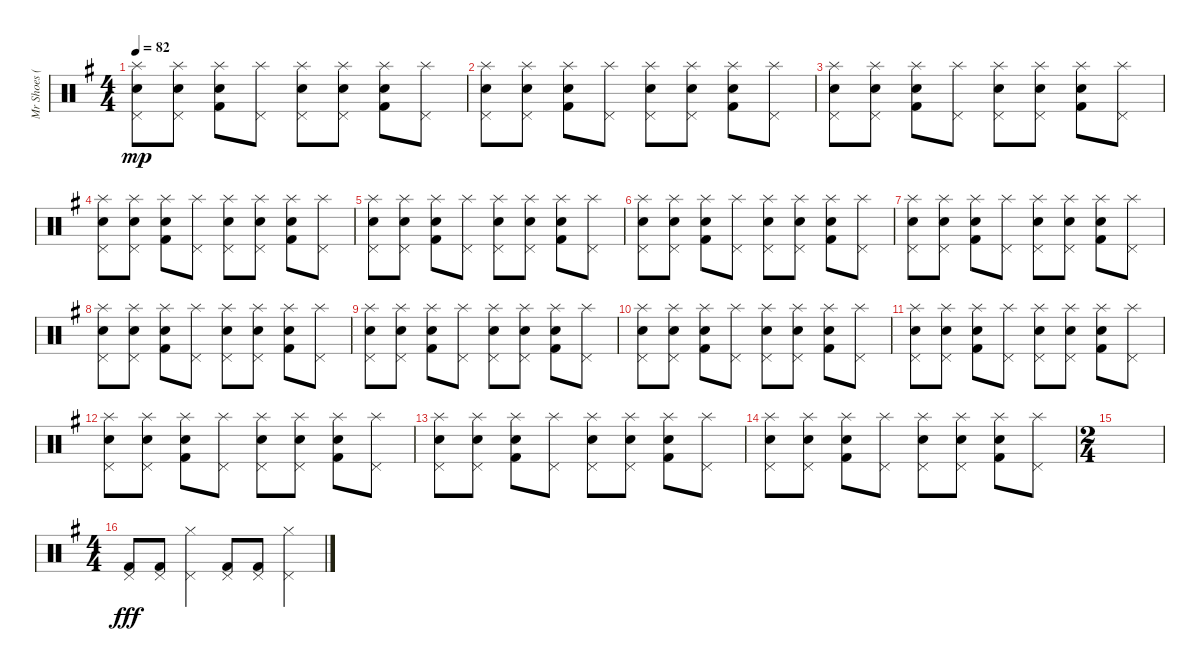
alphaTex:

\track ("Mr Shoes (batterie)" "Mr Shoes (") {instrument percussion}
\staff {score}
\articulation defaults
\ts (4 4)
\tempo 82
\clef neutral
\ks g
("Electric Snare (hit)" "Pedal Hi-Hat (hit)" "Splash (hit)").8{dy mp} ("Electric Snare (hit)" "Pedal Hi-Hat (hit)" "Splash (hit)").8 ("Kick (hit) 2" "Snare (hit) 2" "Splash (hit)").8 ("Pedal Hi-Hat (hit)" "Splash (hit)").8 ("Electric Snare (hit)" "Pedal Hi-Hat (hit)" "Splash (hit)").8 ("Electric Snare (hit)" "Pedal Hi-Hat (hit)" "Splash (hit)").8 ("Kick (hit) 2" "Snare (hit) 2" "Splash (hit)").8 ("Pedal Hi-Hat (hit)" "Splash (hit)").8 |
("Electric Snare (hit)" "Pedal Hi-Hat (hit)" "Splash (hit)").8 ("Electric Snare (hit)" "Pedal Hi-Hat (hit)" "Splash (hit)").8 ("Kick (hit) 2" "Snare (hit) 2" "Splash (hit)").8 ("Pedal Hi-Hat (hit)" "Splash (hit)").8 ("Electric Snare (hit)" "Pedal Hi-Hat (hit)" "Splash (hit)").8 ("Electric Snare (hit)" "Pedal Hi-Hat (hit)" "Splash (hit)").8 ("Kick (hit) 2" "Snare (hit) 2" "Splash (hit)").8 ("Pedal Hi-Hat (hit)" "Splash (hit)").8 |
("Electric Snare (hit)" "Pedal Hi-Hat (hit)" "Splash (hit)").8 ("Electric Snare (hit)" "Pedal Hi-Hat (hit)" "Splash (hit)").8 ("Kick (hit) 2" "Snare (hit) 2" "Splash (hit)").8 ("Pedal Hi-Hat (hit)" "Splash (hit)").8 ("Electric Snare (hit)" "Pedal Hi-Hat (hit)" "Splash (hit)").8 ("Electric Snare (hit)" "Pedal Hi-Hat (hit)" "Splash (hit)").8 ("Kick (hit) 2" "Snare (hit) 2" "Splash (hit)").8 ("Pedal Hi-Hat (hit)" "Splash (hit)").8 |
("Electric Snare (hit)" "Pedal Hi-Hat (hit)" "Splash (hit)").8 ("Electric Snare (hit)" "Pedal Hi-Hat (hit)" "Splash (hit)").8 ("Kick (hit) 2" "Snare (hit) 2" "Splash (hit)").8 ("Pedal Hi-Hat (hit)" "Splash (hit)").8 ("Electric Snare (hit)" "Pedal Hi-Hat (hit)" "Splash (hit)").8 ("Electric Snare (hit)" "Pedal Hi-Hat (hit)" "Splash (hit)").8 ("Kick (hit) 2" "Snare (hit) 2" "Splash (hit)").8 ("Pedal Hi-Hat (hit)" "Splash (hit)").8 |
("Electric Snare (hit)" "Pedal Hi-Hat (hit)" "Splash (hit)").8 ("Electric Snare (hit)" "Pedal Hi-Hat (hit)" "Splash (hit)").8 ("Kick (hit) 2" "Snare (hit) 2" "Splash (hit)").8 ("Pedal Hi-Hat (hit)" "Splash (hit)").8 ("Electric Snare (hit)" "Pedal Hi-Hat (hit)" "Splash (hit)").8 ("Electric Snare (hit)" "Pedal Hi-Hat (hit)" "Splash (hit)").8 ("Kick (hit) 2" "Snare (hit) 2" "Splash (hit)").8 ("Pedal Hi-Hat (hit)" "Splash (hit)").8 |
("Electric Snare (hit)" "Pedal Hi-Hat (hit)" "Splash (hit)").8 ("Electric Snare (hit)" "Pedal Hi-Hat (hit)" "Splash (hit)").8 ("Kick (hit) 2" "Snare (hit) 2" "Splash (hit)").8 ("Pedal Hi-Hat (hit)" "Splash (hit)").8 ("Electric Snare (hit)" "Pedal Hi-Hat (hit)" "Splash (hit)").8 ("Electric Snare (hit)" "Pedal Hi-Hat (hit)" "Splash (hit)").8 ("Kick (hit) 2" "Snare (hit) 2" "Splash (hit)").8 ("Pedal Hi-Hat (hit)" "Splash (hit)").8 |
("Electric Snare (hit)" "Pedal Hi-Hat (hit)" "Splash (hit)").8 ("Electric Snare (hit)" "Pedal Hi-Hat (hit)" "Splash (hit)").8 ("Kick (hit) 2" "Snare (hit) 2" "Splash (hit)").8 ("Pedal Hi-Hat (hit)" "Splash (hit)").8 ("Electric Snare (hit)" "Pedal Hi-Hat (hit)" "Splash (hit)").8 ("Electric Snare (hit)" "Pedal Hi-Hat (hit)" "Splash (hit)").8 ("Kick (hit) 2" "Snare (hit) 2" "Splash (hit)").8 ("Pedal Hi-Hat (hit)" "Splash (hit)").8 |
("Electric Snare (hit)" "Pedal Hi-Hat (hit)" "Splash (hit)").8 ("Electric Snare (hit)" "Pedal Hi-Hat (hit)" "Splash (hit)").8 ("Kick (hit) 2" "Snare (hit) 2" "Splash (hit)").8 ("Pedal Hi-Hat (hit)" "Splash (hit)").8 ("Electric Snare (hit)" "Pedal Hi-Hat (hit)" "Splash (hit)").8 ("Electric Snare (hit)" "Pedal Hi-Hat (hit)" "Splash (hit)").8 ("Kick (hit) 2" "Snare (hit) 2" "Splash (hit)").8 ("Pedal Hi-Hat (hit)" "Splash (hit)").8 |
("Electric Snare (hit)" "Pedal Hi-Hat (hit)" "Splash (hit)").8 ("Electric Snare (hit)" "Pedal Hi-Hat (hit)" "Splash (hit)").8 ("Kick (hit) 2" "Snare (hit) 2" "Splash (hit)").8 ("Pedal Hi-Hat (hit)" "Splash (hit)").8 ("Electric Snare (hit)" "Pedal Hi-Hat (hit)" "Splash (hit)").8 ("Electric Snare (hit)" "Pedal Hi-Hat (hit)" "Splash (hit)").8 ("Kick (hit) 2" "Snare (hit) 2" "Splash (hit)").8 ("Pedal Hi-Hat (hit)" "Splash (hit)").8 |
("Electric Snare (hit)" "Pedal Hi-Hat (hit)" "Splash (hit)").8 ("Electric Snare (hit)" "Pedal Hi-Hat (hit)" "Splash (hit)").8 ("Kick (hit) 2" "Snare (hit) 2" "Splash (hit)").8 ("Pedal Hi-Hat (hit)" "Splash (hit)").8 ("Electric Snare (hit)" "Pedal Hi-Hat (hit)" "Splash (hit)").8 ("Electric Snare (hit)" "Pedal Hi-Hat (hit)" "Splash (hit)").8 ("Kick (hit) 2" "Snare (hit) 2" "Splash (hit)").8 ("Pedal Hi-Hat (hit)" "Splash (hit)").8 |
("Electric Snare (hit)" "Pedal Hi-Hat (hit)" "Splash (hit)").8 ("Electric Snare (hit)" "Pedal Hi-Hat (hit)" "Splash (hit)").8 ("Kick (hit) 2" "Snare (hit) 2" "Splash (hit)").8 ("Pedal Hi-Hat (hit)" "Splash (hit)").8 ("Electric Snare (hit)" "Pedal Hi-Hat (hit)" "Splash (hit)").8 ("Electric Snare (hit)" "Pedal Hi-Hat (hit)" "Splash (hit)").8 ("Kick (hit) 2" "Snare (hit) 2" "Splash (hit)").8 ("Pedal Hi-Hat (hit)" "Splash (hit)").8 |
("Electric Snare (hit)" "Pedal Hi-Hat (hit)" "Splash (hit)").8 ("Electric Snare (hit)" "Pedal Hi-Hat (hit)" "Splash (hit)").8 ("Kick (hit) 2" "Snare (hit) 2" "Splash (hit)").8 ("Pedal Hi-Hat (hit)" "Splash (hit)").8 ("Electric Snare (hit)" "Pedal Hi-Hat (hit)" "Splash (hit)").8 ("Electric Snare (hit)" "Pedal Hi-Hat (hit)" "Splash (hit)").8 ("Kick (hit) 2" "Snare (hit) 2" "Splash (hit)").8 ("Pedal Hi-Hat (hit)" "Splash (hit)").8 |
("Electric Snare (hit)" "Pedal Hi-Hat (hit)" "Splash (hit)").8 ("Electric Snare (hit)" "Pedal Hi-Hat (hit)" "Splash (hit)").8 ("Kick (hit) 2" "Snare (hit) 2" "Splash (hit)").8 ("Pedal Hi-Hat (hit)" "Splash (hit)").8 ("Electric Snare (hit)" "Pedal Hi-Hat (hit)" "Splash (hit)").8 ("Electric Snare (hit)" "Pedal Hi-Hat (hit)" "Splash (hit)").8 ("Kick (hit) 2" "Snare (hit) 2" "Splash (hit)").8 ("Pedal Hi-Hat (hit)" "Splash (hit)").8 |
("Electric Snare (hit)" "Pedal Hi-Hat (hit)" "Splash (hit)").8 ("Electric Snare (hit)" "Pedal Hi-Hat (hit)" "Splash (hit)").8 ("Kick (hit) 2" "Snare (hit) 2" "Splash (hit)").8 ("Pedal Hi-Hat (hit)" "Splash (hit)").8 ("Electric Snare (hit)" "Pedal Hi-Hat (hit)" "Splash (hit)").8 ("Electric Snare (hit)" "Pedal Hi-Hat (hit)" "Splash (hit)").8 ("Kick (hit) 2" "Snare (hit) 2" "Splash (hit)").8 ("Pedal Hi-Hat (hit)" "Splash (hit)").8 |
\ts (2 4)
|
\ts (4 4)
("Kick (hit) 2" "Pedal Hi-Hat (hit)").8{dy fff} ("Kick (hit) 2" "Pedal Hi-Hat (hit)").8 ("Pedal Hi-Hat (hit)" "Hi-Hat (closed)").4 ("Kick (hit) 2" "Pedal Hi-Hat (hit)").8 ("Kick (hit) 2" "Pedal Hi-Hat (hit)").8 ("Pedal Hi-Hat (hit)" "Hi-Hat (closed)").4
